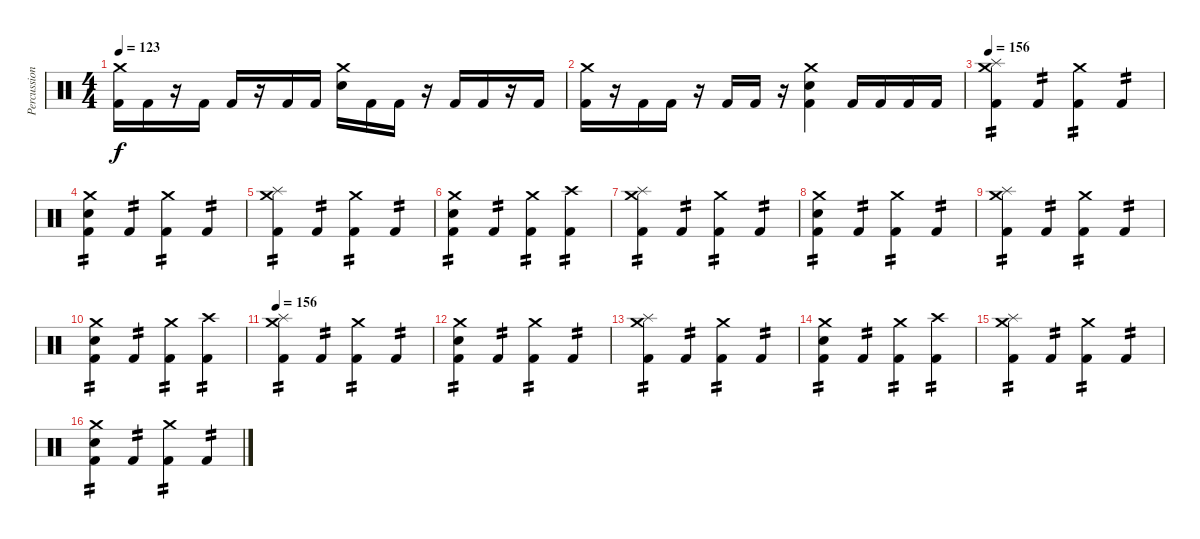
\track ("Percussion" "Percussion") {instrument percussion}
\staff {score}
\articulation defaults
\ts (4 4)
\tempo 123
\clef neutral
\ks c
("Crash medium (hit)" "Kick (hit) 2").16{dy f} "Kick (hit) 2".16 r.16 "Kick (hit) 2".16 "Kick (hit) 2".16 r.16 "Kick (hit) 2".16 "Kick (hit) 2".16 ("Crash medium (hit)" "Snare (hit) 2").16 "Kick (hit) 2".16 "Kick (hit) 2".16 r.16 "Kick (hit) 2".16 "Kick (hit) 2".16 r.16 "Kick (hit) 2".16 |
("Crash medium (hit)" "Kick (hit) 2").16 r.16 "Kick (hit) 2".16 "Kick (hit) 2".16 r.16 "Kick (hit) 2".16 "Kick (hit) 2".16 r.16 ("Crash medium (hit)" "Snare (hit) 2" "Kick (hit) 2").4 "Kick (hit) 2".16 "Kick (hit) 2".16 "Kick (hit) 2".16 "Kick (hit) 2".16 |
\tempo 156
("Crash medium (hit)" "Splash (hit)" "Kick (hit) 2").4{tp 2} "Kick (hit) 2".4{tp 2} ("Crash medium (hit)" "Kick (hit) 2").4{tp 2} "Kick (hit) 2".4{tp 2} |
("Crash medium (hit)" "Snare (hit) 2" "Kick (hit) 2").4{tp 2} "Kick (hit) 2".4{tp 2} ("Crash medium (hit)" "Kick (hit) 2").4{tp 2} "Kick (hit) 2".4{tp 2} |
("Crash medium (hit)" "Splash (hit)" "Kick (hit) 2").4{tp 2} "Kick (hit) 2".4{tp 2} ("Crash medium (hit)" "Kick (hit) 2").4{tp 2} "Kick (hit) 2".4{tp 2} |
("Crash medium (hit)" "Snare (hit) 2" "Kick (hit) 2").4{tp 2} "Kick (hit) 2".4{tp 2} ("Crash medium (hit)" "Kick (hit) 2").4{tp 2} ("Crash high (hit)" "Kick (hit) 2").4{tp 2} |
("Crash medium (hit)" "Splash (hit)" "Kick (hit) 2").4{tp 2} "Kick (hit) 2".4{tp 2} ("Crash medium (hit)" "Kick (hit) 2").4{tp 2} "Kick (hit) 2".4{tp 2} |
("Crash medium (hit)" "Snare (hit) 2" "Kick (hit) 2").4{tp 2} "Kick (hit) 2".4{tp 2} ("Crash medium (hit)" "Kick (hit) 2").4{tp 2} "Kick (hit) 2".4{tp 2} |
("Crash medium (hit)" "Splash (hit)" "Kick (hit) 2").4{tp 2} "Kick (hit) 2".4{tp 2} ("Crash medium (hit)" "Kick (hit) 2").4{tp 2} "Kick (hit) 2".4{tp 2} |
("Crash medium (hit)" "Snare (hit) 2" "Kick (hit) 2").4{tp 2} "Kick (hit) 2".4{tp 2} ("Crash medium (hit)" "Kick (hit) 2").4{tp 2} ("Crash high (hit)" "Kick (hit) 2").4{tp 2} |
\tempo 156
("Crash medium (hit)" "Splash (hit)" "Kick (hit) 2").4{tp 2} "Kick (hit) 2".4{tp 2} ("Crash medium (hit)" "Kick (hit) 2").4{tp 2} "Kick (hit) 2".4{tp 2} |
("Crash medium (hit)" "Snare (hit) 2" "Kick (hit) 2").4{tp 2} "Kick (hit) 2".4{tp 2} ("Crash medium (hit)" "Kick (hit) 2").4{tp 2} "Kick (hit) 2".4{tp 2} |
("Crash medium (hit)" "Splash (hit)" "Kick (hit) 2").4{tp 2} "Kick (hit) 2".4{tp 2} ("Crash medium (hit)" "Kick (hit) 2").4{tp 2} "Kick (hit) 2".4{tp 2} |
("Crash medium (hit)" "Snare (hit) 2" "Kick (hit) 2").4{tp 2} "Kick (hit) 2".4{tp 2} ("Crash medium (hit)" "Kick (hit) 2").4{tp 2} ("Crash high (hit)" "Kick (hit) 2").4{tp 2} |
("Crash medium (hit)" "Splash (hit)" "Kick (hit) 2").4{tp 2} "Kick (hit) 2".4{tp 2} ("Crash medium (hit)" "Kick (hit) 2").4{tp 2} "Kick (hit) 2".4{tp 2} |
("Crash medium (hit)" "Snare (hit) 2" "Kick (hit) 2").4{tp 2} "Kick (hit) 2".4{tp 2} ("Crash medium (hit)" "Kick (hit) 2").4{tp 2} "Kick (hit) 2".4{tp 2}
